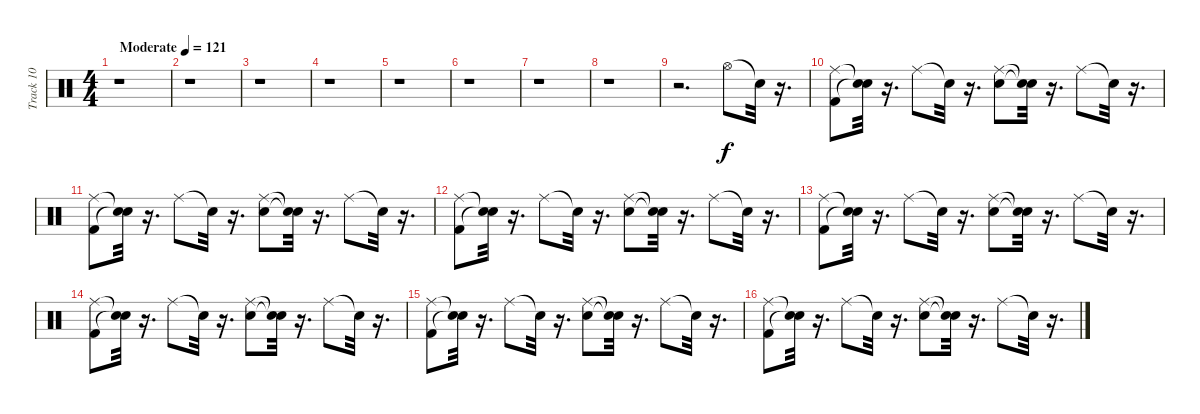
\track ("Track 10" "Track 10") {instrument percussion}
\staff {score}
\articulation defaults
\ts (4 4)
\tempo (121 "Moderate")
\clef neutral
\ks c
r.1{dy f} |
r.1 |
r.1 |
r.1 |
r.1 |
r.1 |
r.1 |
r.1 |
r.2{d} "Hi-Hat (open)".8 "Snare (hit)"{t}.32 r.16{d} |
("Ride (middle)" "Kick (hit) 2").8 ("Snare (hit)"{t} "Snare (hit)"{t}).32 r.16{d} "Ride (middle)".8 "Snare (hit)"{t}.32 r.16{d} ("Snare (hit) 2" "Ride (middle)").8 ("Snare (hit)"{t} "Snare (hit)"{t}).32 r.16{d} "Ride (middle)".8 "Snare (hit)"{t}.32 r.16{d} |
("Ride (middle)" "Kick (hit) 2").8 ("Snare (hit)"{t} "Snare (hit)"{t}).32 r.16{d} "Ride (middle)".8 "Snare (hit)"{t}.32 r.16{d} ("Snare (hit) 2" "Ride (middle)").8 ("Snare (hit)"{t} "Snare (hit)"{t}).32 r.16{d} "Ride (middle)".8 "Snare (hit)"{t}.32 r.16{d} |
("Ride (middle)" "Kick (hit) 2").8 ("Snare (hit)"{t} "Snare (hit)"{t}).32 r.16{d} "Ride (middle)".8 "Snare (hit)"{t}.32 r.16{d} ("Snare (hit) 2" "Ride (middle)").8 ("Snare (hit)"{t} "Snare (hit)"{t}).32 r.16{d} "Ride (middle)".8 "Snare (hit)"{t}.32 r.16{d} |
("Ride (middle)" "Kick (hit) 2").8 ("Snare (hit)"{t} "Snare (hit)"{t}).32 r.16{d} "Ride (middle)".8 "Snare (hit)"{t}.32 r.16{d} ("Snare (hit) 2" "Ride (middle)").8 ("Snare (hit)"{t} "Snare (hit)"{t}).32 r.16{d} "Ride (middle)".8 "Snare (hit)"{t}.32 r.16{d} |
("Ride (middle)" "Kick (hit) 2").8 ("Snare (hit)"{t} "Snare (hit)"{t}).32 r.16{d} "Ride (middle)".8 "Snare (hit)"{t}.32 r.16{d} ("Snare (hit) 2" "Ride (middle)").8 ("Snare (hit)"{t} "Snare (hit)"{t}).32 r.16{d} "Ride (middle)".8 "Snare (hit)"{t}.32 r.16{d} |
("Ride (middle)" "Kick (hit) 2").8 ("Snare (hit)"{t} "Snare (hit)"{t}).32 r.16{d} "Ride (middle)".8 "Snare (hit)"{t}.32 r.16{d} ("Snare (hit) 2" "Ride (middle)").8 ("Snare (hit)"{t} "Snare (hit)"{t}).32 r.16{d} "Ride (middle)".8 "Snare (hit)"{t}.32 r.16{d} |
("Ride (middle)" "Kick (hit) 2").8 ("Snare (hit)"{t} "Snare (hit)"{t}).32 r.16{d} "Ride (middle)".8 "Snare (hit)"{t}.32 r.16{d} ("Snare (hit) 2" "Ride (middle)").8 ("Snare (hit)"{t} "Snare (hit)"{t}).32 r.16{d} "Ride (middle)".8 "Snare (hit)"{t}.32 r.16{d}
